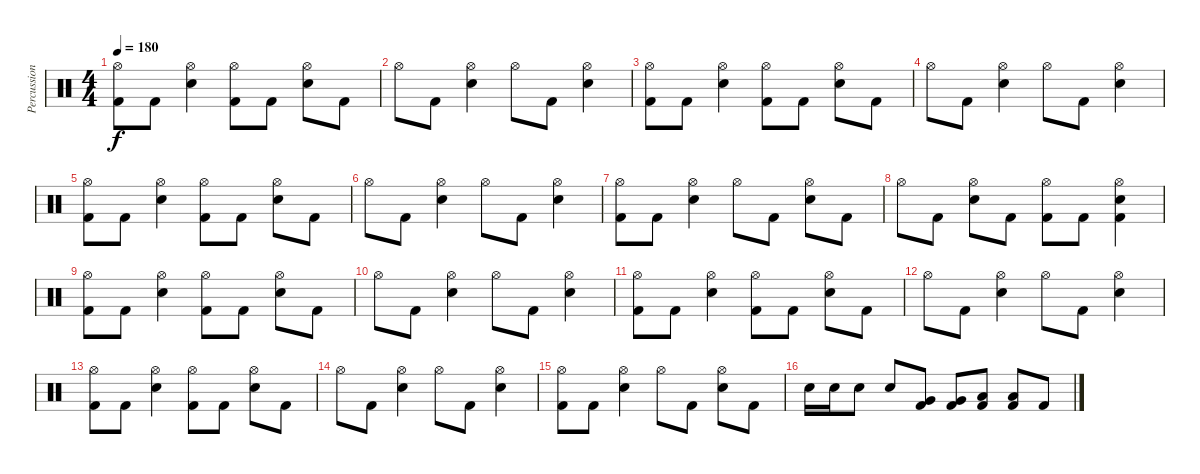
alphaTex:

\track ("Percussion" "Percussion") {instrument percussion}
\staff {score}
\articulation defaults
\ts (4 4)
\tempo 180
\clef neutral
\ks c
("Hi-Hat (open)" "Kick (hit) 2").8{dy f} "Kick (hit) 2".8 ("Hi-Hat (open)" "Electric Snare (hit)").4 ("Hi-Hat (open)" "Kick (hit) 2").8 "Kick (hit) 2".8 ("Hi-Hat (open)" "Electric Snare (hit)").8 "Kick (hit) 2".8 |
"Hi-Hat (open)".8 "Kick (hit) 2".8 ("Hi-Hat (open)" "Electric Snare (hit)").4 "Hi-Hat (open)".8 "Kick (hit) 2".8 ("Hi-Hat (open)" "Electric Snare (hit)").4 |
("Hi-Hat (open)" "Kick (hit) 2").8 "Kick (hit) 2".8 ("Hi-Hat (open)" "Electric Snare (hit)").4 ("Hi-Hat (open)" "Kick (hit) 2").8 "Kick (hit) 2".8 ("Hi-Hat (open)" "Electric Snare (hit)").8 "Kick (hit) 2".8 |
"Hi-Hat (open)".8 "Kick (hit) 2".8 ("Hi-Hat (open)" "Electric Snare (hit)").4 "Hi-Hat (open)".8 "Kick (hit) 2".8 ("Hi-Hat (open)" "Electric Snare (hit)").4 |
("Hi-Hat (open)" "Kick (hit) 2").8 "Kick (hit) 2".8 ("Hi-Hat (open)" "Electric Snare (hit)").4 ("Hi-Hat (open)" "Kick (hit) 2").8 "Kick (hit) 2".8 ("Hi-Hat (open)" "Electric Snare (hit)").8 "Kick (hit) 2".8 |
"Hi-Hat (open)".8 "Kick (hit) 2".8 ("Hi-Hat (open)" "Electric Snare (hit)").4 "Hi-Hat (open)".8 "Kick (hit) 2".8 ("Hi-Hat (open)" "Electric Snare (hit)").4 |
("Hi-Hat (open)" "Kick (hit) 2").8 "Kick (hit) 2".8 ("Hi-Hat (open)" "Electric Snare (hit)").4 "Hi-Hat (open)".8 "Kick (hit) 2".8 ("Hi-Hat (open)" "Electric Snare (hit)").8 "Kick (hit) 2".8 |
"Hi-Hat (open)".8 "Kick (hit) 2".8 ("Hi-Hat (open)" "Electric Snare (hit)").8 "Kick (hit) 2".8 ("Hi-Hat (open)" "Kick (hit) 2").8 "Kick (hit) 2".8 ("Hi-Hat (open)" "Electric Snare (hit)" "Kick (hit) 2").4 |
("Hi-Hat (open)" "Kick (hit) 2").8 "Kick (hit) 2".8 ("Hi-Hat (open)" "Electric Snare (hit)").4 ("Hi-Hat (open)" "Kick (hit) 2").8 "Kick (hit) 2".8 ("Hi-Hat (open)" "Electric Snare (hit)").8 "Kick (hit) 2".8 |
"Hi-Hat (open)".8 "Kick (hit) 2".8 ("Hi-Hat (open)" "Electric Snare (hit)").4 "Hi-Hat (open)".8 "Kick (hit) 2".8 ("Hi-Hat (open)" "Electric Snare (hit)").4 |
("Hi-Hat (open)" "Kick (hit) 2").8 "Kick (hit) 2".8 ("Hi-Hat (open)" "Electric Snare (hit)").4 ("Hi-Hat (open)" "Kick (hit) 2").8 "Kick (hit) 2".8 ("Hi-Hat (open)" "Electric Snare (hit)").8 "Kick (hit) 2".8 |
"Hi-Hat (open)".8 "Kick (hit) 2".8 ("Hi-Hat (open)" "Electric Snare (hit)").4 "Hi-Hat (open)".8 "Kick (hit) 2".8 ("Hi-Hat (open)" "Electric Snare (hit)").4 |
("Hi-Hat (open)" "Kick (hit) 2").8 "Kick (hit) 2".8 ("Hi-Hat (open)" "Electric Snare (hit)").4 ("Hi-Hat (open)" "Kick (hit) 2").8 "Kick (hit) 2".8 ("Hi-Hat (open)" "Electric Snare (hit)").8 "Kick (hit) 2".8 |
"Hi-Hat (open)".8 "Kick (hit) 2".8 ("Hi-Hat (open)" "Electric Snare (hit)").4 "Hi-Hat (open)".8 "Kick (hit) 2".8 ("Hi-Hat (open)" "Electric Snare (hit)").4 |
("Hi-Hat (open)" "Kick (hit) 2").8 "Kick (hit) 2".8 ("Hi-Hat (open)" "Electric Snare (hit)").4 "Hi-Hat (open)".8 "Kick (hit) 2".8 ("Hi-Hat (open)" "Electric Snare (hit)").8 "Kick (hit) 2".8 |
"Electric Snare (hit)".16 "Electric Snare (hit)".16 "Electric Snare (hit)".8 "Electric Snare (hit)".8 ("Very Low Tom (hit)" "Kick (hit) 2").8 ("Very Low Tom (hit)" "Kick (hit) 2").8 ("Low Floor Tom (hit)" "Kick (hit) 2").8 ("Low Floor Tom (hit)" "Kick (hit) 2").8 "Kick (hit) 2".8
